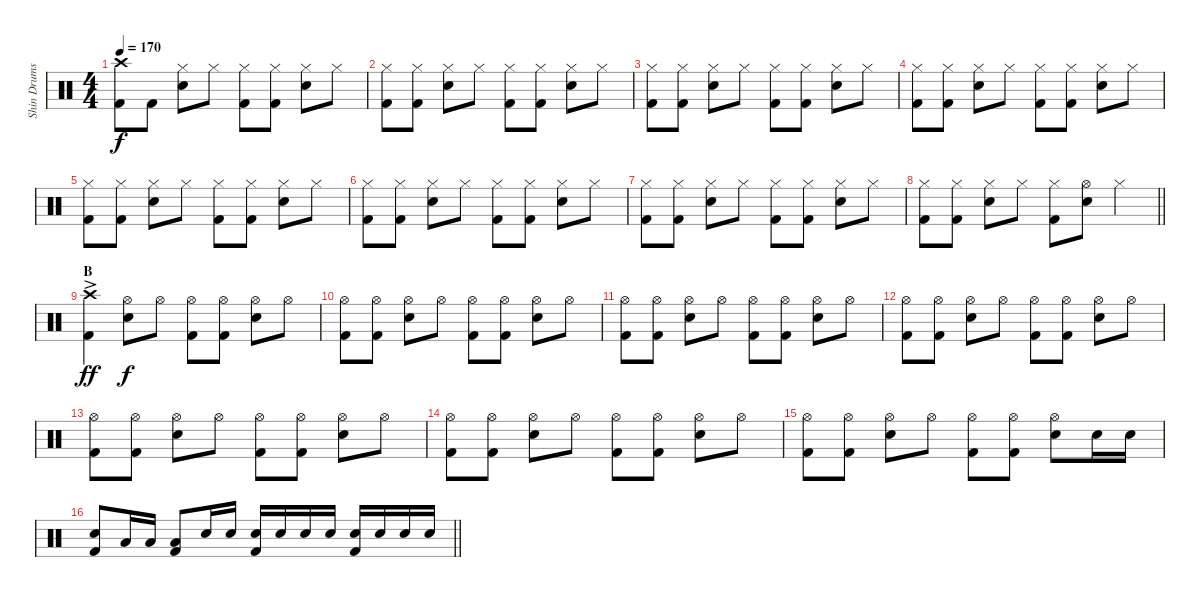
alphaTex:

\track ("Shin Drums" "Shin Drums") {instrument percussion}
\staff {score}
\articulation defaults
\ts (4 4)
\tempo 170
\clef neutral
\ks c
("Crash high (hit)" "Kick (hit) 2").8{dy f} "Kick (hit) 2".8 ("Hi-Hat (closed)" "Snare (hit) 2").8 "Hi-Hat (closed)".8 ("Hi-Hat (closed)" "Kick (hit) 2").8 ("Hi-Hat (closed)" "Kick (hit) 2").8 ("Hi-Hat (closed)" "Snare (hit) 2").8 "Hi-Hat (closed)".8 |
("Hi-Hat (closed)" "Kick (hit) 2").8 ("Hi-Hat (closed)" "Kick (hit) 2").8 ("Hi-Hat (closed)" "Snare (hit) 2").8 "Hi-Hat (closed)".8 ("Hi-Hat (closed)" "Kick (hit) 2").8 ("Hi-Hat (closed)" "Kick (hit) 2").8 ("Hi-Hat (closed)" "Snare (hit) 2").8 "Hi-Hat (closed)".8 |
("Hi-Hat (closed)" "Kick (hit) 2").8 ("Hi-Hat (closed)" "Kick (hit) 2").8 ("Hi-Hat (closed)" "Snare (hit) 2").8 "Hi-Hat (closed)".8 ("Hi-Hat (closed)" "Kick (hit) 2").8 ("Hi-Hat (closed)" "Kick (hit) 2").8 ("Hi-Hat (closed)" "Snare (hit) 2").8 "Hi-Hat (closed)".8 |
("Hi-Hat (closed)" "Kick (hit) 2").8 ("Hi-Hat (closed)" "Kick (hit) 2").8 ("Hi-Hat (closed)" "Snare (hit) 2").8 "Hi-Hat (closed)".8 ("Hi-Hat (closed)" "Kick (hit) 2").8 ("Hi-Hat (closed)" "Kick (hit) 2").8 ("Hi-Hat (closed)" "Snare (hit) 2").8 "Hi-Hat (closed)".8 |
("Hi-Hat (closed)" "Kick (hit) 2").8 ("Hi-Hat (closed)" "Kick (hit) 2").8 ("Hi-Hat (closed)" "Snare (hit) 2").8 "Hi-Hat (closed)".8 ("Hi-Hat (closed)" "Kick (hit) 2").8 ("Hi-Hat (closed)" "Kick (hit) 2").8 ("Hi-Hat (closed)" "Snare (hit) 2").8 "Hi-Hat (closed)".8 |
("Hi-Hat (closed)" "Kick (hit) 2").8 ("Hi-Hat (closed)" "Kick (hit) 2").8 ("Hi-Hat (closed)" "Snare (hit) 2").8 "Hi-Hat (closed)".8 ("Hi-Hat (closed)" "Kick (hit) 2").8 ("Hi-Hat (closed)" "Kick (hit) 2").8 ("Hi-Hat (closed)" "Snare (hit) 2").8 "Hi-Hat (closed)".8 |
("Hi-Hat (closed)" "Kick (hit) 2").8 ("Hi-Hat (closed)" "Kick (hit) 2").8 ("Hi-Hat (closed)" "Snare (hit) 2").8 "Hi-Hat (closed)".8 ("Hi-Hat (closed)" "Kick (hit) 2").8 ("Hi-Hat (closed)" "Kick (hit) 2").8 ("Hi-Hat (closed)" "Snare (hit) 2").8 "Hi-Hat (closed)".8 |
\barLineRight lightlight
("Hi-Hat (closed)" "Kick (hit) 2").8 ("Hi-Hat (closed)" "Kick (hit) 2").8 ("Hi-Hat (closed)" "Snare (hit) 2").8 "Hi-Hat (closed)".8 ("Hi-Hat (closed)" "Kick (hit) 2").8 ("Hi-Hat (open)" "Snare (hit) 2").8 "Hi-Hat (closed)".4 |
\section ("" "B")
("Crash high (hit)"{ac} "Kick (hit) 2").4{dy ff} ("Hi-Hat (open)" "Snare (hit) 2").8{dy f} "Hi-Hat (open)".8 ("Hi-Hat (open)" "Kick (hit) 2").8 ("Hi-Hat (open)" "Kick (hit) 2").8 ("Hi-Hat (open)" "Snare (hit) 2").8 "Hi-Hat (open)".8 |
("Hi-Hat (open)" "Kick (hit) 2").8 ("Hi-Hat (open)" "Kick (hit) 2").8 ("Hi-Hat (open)" "Snare (hit) 2").8 "Hi-Hat (open)".8 ("Hi-Hat (open)" "Kick (hit) 2").8 ("Hi-Hat (open)" "Kick (hit) 2").8 ("Hi-Hat (open)" "Snare (hit) 2").8 "Hi-Hat (open)".8 |
("Hi-Hat (open)" "Kick (hit) 2").8 ("Hi-Hat (open)" "Kick (hit) 2").8 ("Hi-Hat (open)" "Snare (hit) 2").8 "Hi-Hat (open)".8 ("Hi-Hat (open)" "Kick (hit) 2").8 ("Hi-Hat (open)" "Kick (hit) 2").8 ("Hi-Hat (open)" "Snare (hit) 2").8 "Hi-Hat (open)".8 |
("Hi-Hat (open)" "Kick (hit) 2").8 ("Hi-Hat (open)" "Kick (hit) 2").8 ("Hi-Hat (open)" "Snare (hit) 2").8 "Hi-Hat (open)".8 ("Hi-Hat (open)" "Kick (hit) 2").8 ("Hi-Hat (open)" "Kick (hit) 2").8 ("Hi-Hat (open)" "Snare (hit) 2").8 "Hi-Hat (open)".8 |
("Hi-Hat (open)" "Kick (hit) 2").8 ("Hi-Hat (open)" "Kick (hit) 2").8 ("Hi-Hat (open)" "Snare (hit) 2").8 "Hi-Hat (open)".8 ("Hi-Hat (open)" "Kick (hit) 2").8 ("Hi-Hat (open)" "Kick (hit) 2").8 ("Hi-Hat (open)" "Snare (hit) 2").8 "Hi-Hat (open)".8 |
("Hi-Hat (open)" "Kick (hit) 2").8 ("Hi-Hat (open)" "Kick (hit) 2").8 ("Hi-Hat (open)" "Snare (hit) 2").8 "Hi-Hat (open)".8 ("Hi-Hat (open)" "Kick (hit) 2").8 ("Hi-Hat (open)" "Kick (hit) 2").8 ("Hi-Hat (open)" "Snare (hit) 2").8 "Hi-Hat (open)".8 |
("Hi-Hat (open)" "Kick (hit) 2").8 ("Hi-Hat (open)" "Kick (hit) 2").8 ("Hi-Hat (open)" "Snare (hit) 2").8 "Hi-Hat (open)".8 ("Hi-Hat (open)" "Kick (hit) 2").8 ("Hi-Hat (open)" "Kick (hit) 2").8 ("Hi-Hat (open)" "Snare (hit) 2").8 "Snare (hit) 2".16 "Snare (hit) 2".16 |
\barLineRight lightlight
("Snare (hit) 2" "Kick (hit) 2").8 "Low Tom (hit)".16 "Low Tom (hit)".16 ("Low Tom (hit)" "Kick (hit) 2").8 "Snare (hit) 2".16 "Snare (hit) 2".16 ("Snare (hit) 2" "Kick (hit) 2").16 "Snare (hit) 2".16 "Snare (hit) 2".16 "Snare (hit) 2".16 ("Snare (hit) 2" "Kick (hit) 2").16 "Snare (hit) 2".16 "Snare (hit) 2".16 "Snare (hit) 2".16
